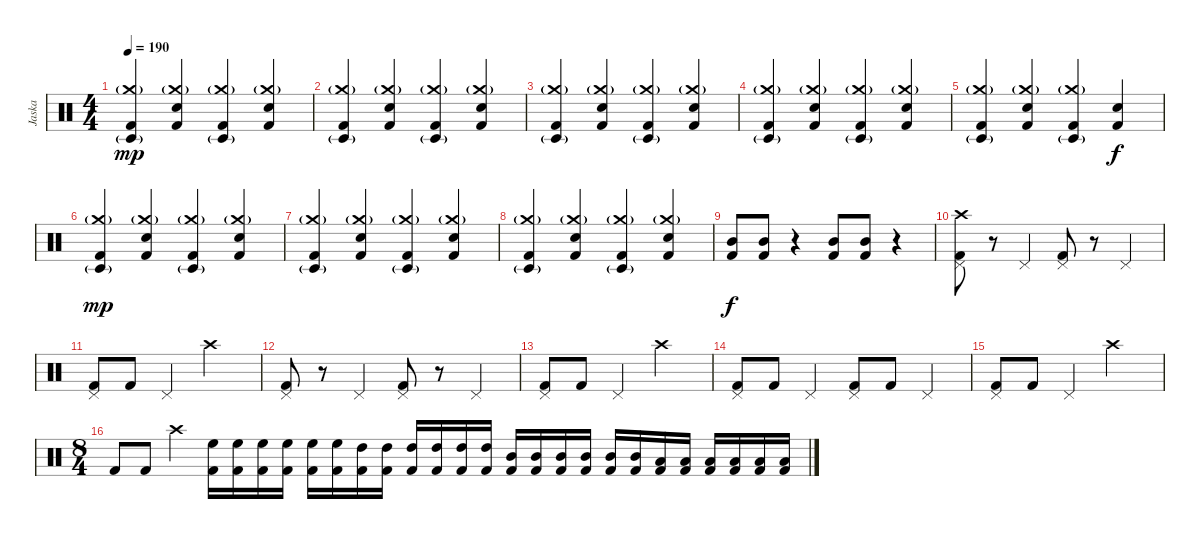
\track ("Jaska" "Jaska") {instrument percussion}
\staff {score}
\articulation defaults
\ts (4 4)
\tempo 190
\clef neutral
\ks c
("Kick (hit) 2" "Crash medium (hit)"{g} "Timbale low (hit)"{g}).4{dy mp} ("Kick (hit) 2" "Crash medium (hit)"{g} "Snare (hit) 2").4 ("Kick (hit) 2" "Crash medium (hit)"{g} "Timbale low (hit)"{g}).4 ("Kick (hit) 2" "Crash medium (hit)"{g} "Snare (hit) 2").4 |
("Kick (hit) 2" "Crash medium (hit)"{g} "Timbale low (hit)"{g}).4 ("Kick (hit) 2" "Crash medium (hit)"{g} "Snare (hit) 2").4 ("Kick (hit) 2" "Crash medium (hit)"{g} "Timbale low (hit)"{g}).4 ("Kick (hit) 2" "Crash medium (hit)"{g} "Snare (hit) 2").4 |
("Kick (hit) 2" "Crash medium (hit)"{g} "Timbale low (hit)"{g}).4 ("Kick (hit) 2" "Crash medium (hit)"{g} "Snare (hit) 2").4 ("Kick (hit) 2" "Crash medium (hit)"{g} "Timbale low (hit)"{g}).4 ("Kick (hit) 2" "Crash medium (hit)"{g} "Snare (hit) 2").4 |
("Kick (hit) 2" "Crash medium (hit)"{g} "Timbale low (hit)"{g}).4 ("Kick (hit) 2" "Crash medium (hit)"{g} "Snare (hit) 2").4 ("Kick (hit) 2" "Crash medium (hit)"{g} "Timbale low (hit)"{g}).4 ("Kick (hit) 2" "Crash medium (hit)"{g} "Snare (hit) 2").4 |
("Kick (hit) 2" "Crash medium (hit)"{g} "Timbale low (hit)"{g}).4 ("Kick (hit) 2" "Crash medium (hit)"{g} "Snare (hit) 2").4 ("Kick (hit) 2" "Crash medium (hit)"{g} "Timbale low (hit)"{g}).4 ("Kick (hit) 2" "Snare (hit) 2").4{dy f} |
("Kick (hit) 2" "Crash medium (hit)"{g} "Timbale low (hit)"{g}).4{dy mp} ("Kick (hit) 2" "Crash medium (hit)"{g} "Snare (hit) 2").4 ("Kick (hit) 2" "Crash medium (hit)"{g} "Timbale low (hit)"{g}).4 ("Kick (hit) 2" "Crash medium (hit)"{g} "Snare (hit) 2").4 |
("Kick (hit) 2" "Crash medium (hit)"{g} "Timbale low (hit)"{g}).4 ("Kick (hit) 2" "Crash medium (hit)"{g} "Snare (hit) 2").4 ("Kick (hit) 2" "Crash medium (hit)"{g} "Timbale low (hit)"{g}).4 ("Kick (hit) 2" "Crash medium (hit)"{g} "Snare (hit) 2").4 |
("Kick (hit) 2" "Crash medium (hit)"{g} "Timbale low (hit)"{g}).4 ("Kick (hit) 2" "Crash medium (hit)"{g} "Snare (hit) 2").4 ("Kick (hit) 2" "Crash medium (hit)"{g} "Timbale low (hit)"{g}).4 ("Kick (hit) 2" "Crash medium (hit)"{g} "Snare (hit) 2").4 |
("Kick (hit) 2" "Mid Tom (hit)").8{dy f} ("Kick (hit) 2" "Mid Tom (hit)").8 r.4 ("Kick (hit) 2" "Mid Tom (hit)").8 ("Kick (hit) 2" "Mid Tom (hit)").8 r.4 |
("Kick (hit) 2" "Pedal Hi-Hat (hit)" "Crash high (hit)").8 r.8 "Pedal Hi-Hat (hit)".4 ("Kick (hit) 2" "Pedal Hi-Hat (hit)").8 r.8 "Pedal Hi-Hat (hit)".4 |
("Kick (hit) 2" "Pedal Hi-Hat (hit)").8 "Kick (hit) 2".8 "Pedal Hi-Hat (hit)".4 "Crash high (hit)".2 |
("Kick (hit) 2" "Pedal Hi-Hat (hit)").8 r.8 "Pedal Hi-Hat (hit)".4 ("Kick (hit) 2" "Pedal Hi-Hat (hit)").8 r.8 "Pedal Hi-Hat (hit)".4 |
("Kick (hit) 2" "Pedal Hi-Hat (hit)").8 "Kick (hit) 2".8 "Pedal Hi-Hat (hit)".4 "Crash high (hit)".2 |
("Kick (hit) 2" "Pedal Hi-Hat (hit)").8 "Kick (hit) 2".8 "Pedal Hi-Hat (hit)".4 ("Kick (hit) 2" "Pedal Hi-Hat (hit)").8 "Kick (hit) 2".8 "Pedal Hi-Hat (hit)".4 |
("Kick (hit) 2" "Pedal Hi-Hat (hit)").8 "Kick (hit) 2".8 "Pedal Hi-Hat (hit)".4 "Crash high (hit)".2 |
\ts (8 4)
"Kick (hit) 2".8 "Kick (hit) 2".8 "Crash high (hit)".4 ("Kick (hit) 2" "High Floor Tom (hit)").16 ("Kick (hit) 2" "High Floor Tom (hit)").16 ("Kick (hit) 2" "High Floor Tom (hit)").16 ("Kick (hit) 2" "High Floor Tom (hit)").16 ("Kick (hit) 2" "High Floor Tom (hit)").16 ("Kick (hit) 2" "High Floor Tom (hit)").16 ("Kick (hit) 2" "High Tom (hit)").16 ("Kick (hit) 2" "High Tom (hit)").16 ("Kick (hit) 2" "High Tom (hit)").16 ("Kick (hit) 2" "High Tom (hit)").16 ("Kick (hit) 2" "High Tom (hit)").16 ("Kick (hit) 2" "High Tom (hit)").16 ("Kick (hit) 2" "Mid Tom (hit)").16 ("Kick (hit) 2" "Mid Tom (hit)").16 ("Kick (hit) 2" "Mid Tom (hit)").16 ("Kick (hit) 2" "Mid Tom (hit)").16 ("Kick (hit) 2" "Mid Tom (hit)").16 ("Kick (hit) 2" "Mid Tom (hit)").16 ("Kick (hit) 2" "Low Tom (hit)").16 ("Kick (hit) 2" "Low Tom (hit)").16 ("Kick (hit) 2" "Low Tom (hit)").16 ("Kick (hit) 2" "Low Tom (hit)").16 ("Kick (hit) 2" "Low Tom (hit)").16 ("Kick (hit) 2" "Low Tom (hit)").16
